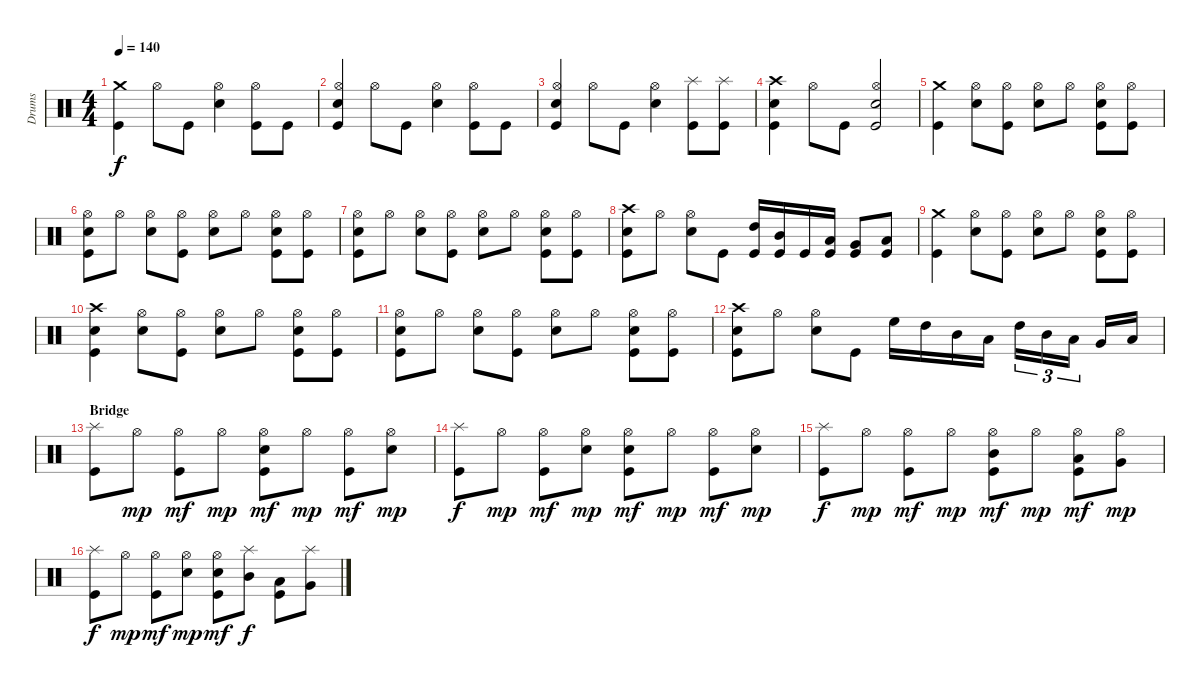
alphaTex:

\track ("Drums" "Drums") {instrument percussion}
\staff {score}
\articulation defaults
\ts (4 4)
\tempo 140
\clef neutral
\ks c
("Crash medium (hit)" "Kick (hit)").4{dy f} "Hi-Hat (open)".8 "Kick (hit)".8 ("Hi-Hat (open)" "Electric Snare (hit)").4 ("Hi-Hat (open)" "Kick (hit)").8 "Kick (hit)".8 |
("Hi-Hat (open)" "Electric Snare (hit)" "Kick (hit)").4 "Hi-Hat (open)".8 "Kick (hit)".8 ("Hi-Hat (open)" "Electric Snare (hit)").4 ("Hi-Hat (open)" "Kick (hit)").8 "Kick (hit)".8 |
("Hi-Hat (open)" "Electric Snare (hit)" "Kick (hit)").4 "Hi-Hat (open)".8 "Kick (hit)".8 ("Hi-Hat (open)" "Electric Snare (hit)").4 ("Splash (hit)" "Kick (hit)").8 ("Splash (hit)" "Kick (hit)").8 |
("Crash high (hit)" "Electric Snare (hit)" "Kick (hit)").4 "Hi-Hat (open)".8 "Kick (hit)".8 ("Hi-Hat (open)" "Electric Snare (hit)" "Kick (hit)").2 |
("Crash medium (hit)" "Kick (hit)").4 ("Hi-Hat (open)" "Electric Snare (hit)").8 ("Hi-Hat (open)" "Kick (hit)").8 ("Hi-Hat (open)" "Electric Snare (hit)").8 "Hi-Hat (open)".8 ("Hi-Hat (open)" "Electric Snare (hit)" "Kick (hit)").8 ("Hi-Hat (open)" "Kick (hit)").8 |
("Hi-Hat (open)" "Electric Snare (hit)" "Kick (hit)").8 "Hi-Hat (open)".8 ("Hi-Hat (open)" "Electric Snare (hit)").8 ("Hi-Hat (open)" "Kick (hit)").8 ("Hi-Hat (open)" "Electric Snare (hit)").8 "Hi-Hat (open)".8 ("Hi-Hat (open)" "Electric Snare (hit)" "Kick (hit)").8 ("Hi-Hat (open)" "Kick (hit)").8 |
("Hi-Hat (open)" "Electric Snare (hit)" "Kick (hit)").8 "Hi-Hat (open)".8 ("Hi-Hat (open)" "Electric Snare (hit)").8 ("Hi-Hat (open)" "Kick (hit)").8 ("Hi-Hat (open)" "Electric Snare (hit)").8 "Hi-Hat (open)".8 ("Hi-Hat (open)" "Electric Snare (hit)" "Kick (hit)").8 ("Hi-Hat (open)" "Kick (hit)").8 |
("Crash high (hit)" "Electric Snare (hit)" "Kick (hit)").8 "Hi-Hat (open)".8 ("Hi-Hat (open)" "Electric Snare (hit)").8 "Kick (hit)".8 ("High Tom (hit)" "Kick (hit)").16 ("Mid Tom (hit)" "Kick (hit)").16 "Kick (hit)".16 ("Low Tom (hit)" "Kick (hit)").16 ("Very Low Tom (hit)" "Kick (hit)").8 ("Low Floor Tom (hit)" "Kick (hit)").8 |
("Crash medium (hit)" "Kick (hit)").4 ("Hi-Hat (open)" "Electric Snare (hit)").8 ("Hi-Hat (open)" "Kick (hit)").8 ("Hi-Hat (open)" "Electric Snare (hit)").8 "Hi-Hat (open)".8 ("Hi-Hat (open)" "Electric Snare (hit)" "Kick (hit)").8 ("Hi-Hat (open)" "Kick (hit)").8 |
("Crash high (hit)" "Electric Snare (hit)" "Kick (hit)").4 ("Hi-Hat (open)" "Electric Snare (hit)").8 ("Hi-Hat (open)" "Kick (hit)").8 ("Hi-Hat (open)" "Electric Snare (hit)").8 "Hi-Hat (open)".8 ("Hi-Hat (open)" "Electric Snare (hit)" "Kick (hit)").8 ("Hi-Hat (open)" "Kick (hit)").8 |
("Hi-Hat (open)" "Electric Snare (hit)" "Kick (hit)").8 "Hi-Hat (open)".8 ("Hi-Hat (open)" "Electric Snare (hit)").8 ("Hi-Hat (open)" "Kick (hit)").8 ("Hi-Hat (open)" "Electric Snare (hit)").8 "Hi-Hat (open)".8 ("Hi-Hat (open)" "Electric Snare (hit)" "Kick (hit)").8 ("Hi-Hat (open)" "Kick (hit)").8 |
("Crash high (hit)" "Electric Snare (hit)" "Kick (hit)").8 "Hi-Hat (open)".8 ("Hi-Hat (open)" "Electric Snare (hit)").8 "Kick (hit)".8 "High Floor Tom (hit)".16 "High Tom (hit)".16 "Mid Tom (hit)".16 "Low Tom (hit)".16 "High Tom (hit)".16{tu (3 2)} "Mid Tom (hit)".16{tu (3 2)} "Low Tom (hit)".16{tu (3 2)} "Very Low Tom (hit)".16 "Low Floor Tom (hit)".16 |
\section ("" "Bridge")
("Splash (hit)" "Kick (hit)").8 "Hi-Hat (open)".8{dy mp} ("Hi-Hat (open)" "Kick (hit)").8{dy mf} "Hi-Hat (open)".8{dy mp} ("Hi-Hat (open)" "Electric Snare (hit)" "Kick (hit)").8{dy mf} "Hi-Hat (open)".8{dy mp} ("Hi-Hat (open)" "Kick (hit)").8{dy mf} ("Hi-Hat (open)" "Snare (hit) 2").8{dy mp} |
("Splash (hit)" "Kick (hit)").8{dy f} "Hi-Hat (open)".8{dy mp} ("Hi-Hat (open)" "Kick (hit)").8{dy mf} ("Hi-Hat (open)" "Snare (hit) 2").8{dy mp} ("Hi-Hat (open)" "Electric Snare (hit)" "Kick (hit)").8{dy mf} "Hi-Hat (open)".8{dy mp} ("Hi-Hat (open)" "Kick (hit)").8{dy mf} ("Hi-Hat (open)" "Snare (hit) 2").8{dy mp} |
("Splash (hit)" "Kick (hit)").8{dy f} "Hi-Hat (open)".8{dy mp} ("Hi-Hat (open)" "Kick (hit)").8{dy mf} "Hi-Hat (open)".8{dy mp} ("Hi-Hat (open)" "Mid Tom (hit)" "Kick (hit)").8{dy mf} "Hi-Hat (open)".8{dy mp} ("Hi-Hat (open)" "Low Tom (hit)" "Kick (hit)").8{dy mf} ("Hi-Hat (open)" "Very Low Tom (hit)").8{dy mp} |
("Splash (hit)" "Kick (hit)").8{dy f} "Hi-Hat (open)".8{dy mp} ("Hi-Hat (open)" "Kick (hit)").8{dy mf} ("Hi-Hat (open)" "Snare (hit) 2").8{dy mp} ("Hi-Hat (open)" "Electric Snare (hit)" "Kick (hit)").8{dy mf} ("Splash (hit)" "Mid Tom (hit)").8{dy f} ("Low Tom (hit)" "Kick (hit)").8 ("Splash (hit)" "Very Low Tom (hit)").8
